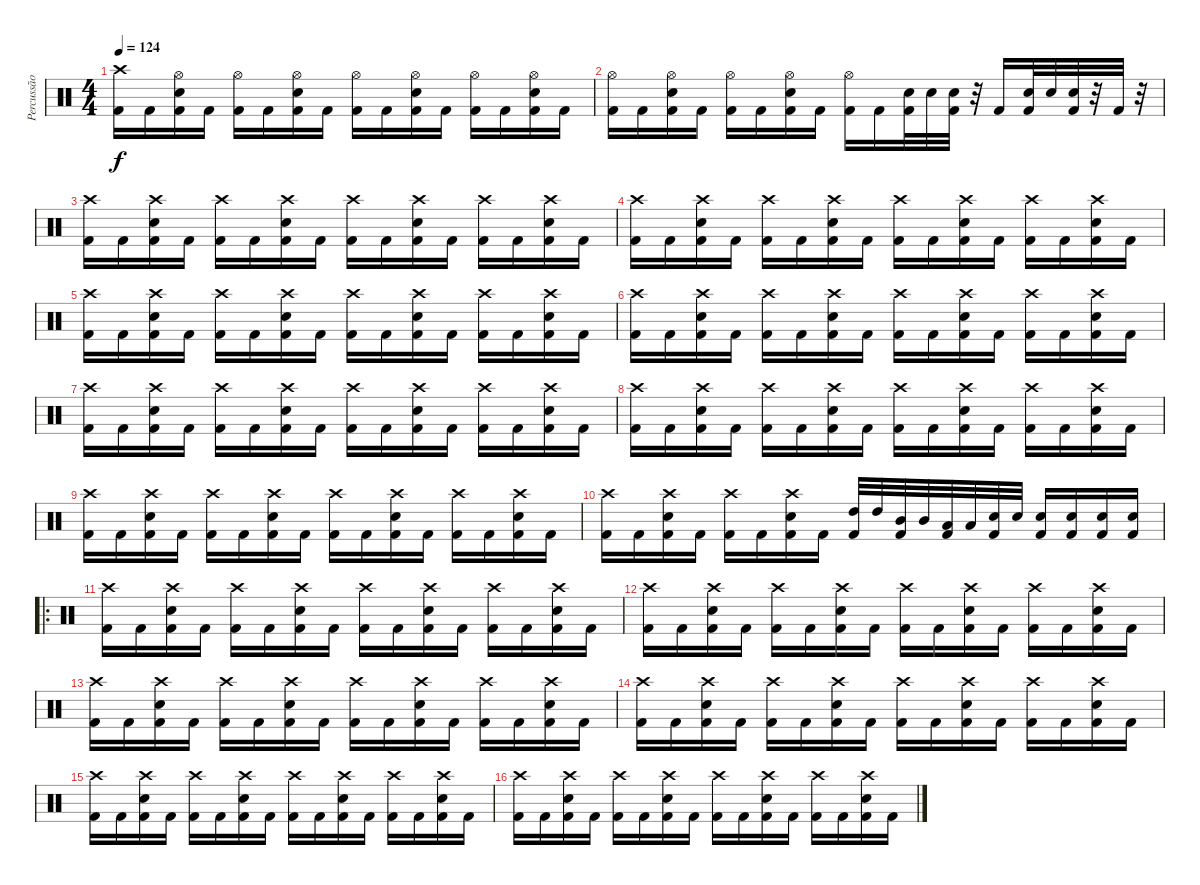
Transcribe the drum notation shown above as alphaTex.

\track ("Percussão" "Percussão") {instrument percussion}
\staff {score}
\articulation defaults
\ts (4 4)
\tempo 124
\clef neutral
\ks c
("Kick (hit) 2" "Crash high (hit)").16{dy f} "Kick (hit) 2".16 ("Kick (hit) 2" "Electric Snare (hit)" "Hi-Hat (open)").16 "Kick (hit) 2".16 ("Kick (hit) 2" "Hi-Hat (open)").16 "Kick (hit) 2".16 ("Kick (hit) 2" "Electric Snare (hit)" "Hi-Hat (open)").16 "Kick (hit) 2".16 ("Kick (hit) 2" "Hi-Hat (open)").16 "Kick (hit) 2".16 ("Kick (hit) 2" "Electric Snare (hit)" "Hi-Hat (open)").16 "Kick (hit) 2".16 ("Kick (hit) 2" "Hi-Hat (open)").16 "Kick (hit) 2".16 ("Kick (hit) 2" "Electric Snare (hit)" "Hi-Hat (open)").16 "Kick (hit) 2".16 |
("Kick (hit) 2" "Hi-Hat (open)").16 "Kick (hit) 2".16 ("Kick (hit) 2" "Electric Snare (hit)" "Hi-Hat (open)").16 "Kick (hit) 2".16 ("Kick (hit) 2" "Hi-Hat (open)").16 "Kick (hit) 2".16 ("Kick (hit) 2" "Electric Snare (hit)" "Hi-Hat (open)").16 "Kick (hit) 2".16 ("Kick (hit) 2" "Hi-Hat (open)").16 "Kick (hit) 2".16 ("Kick (hit) 2" "Electric Snare (hit)").32 "Electric Snare (hit)".32 ("Kick (hit) 2" "Electric Snare (hit)").32 r.32 "Kick (hit) 2".16 ("Kick (hit) 2" "Electric Snare (hit)").32 "Electric Snare (hit)".32 ("Kick (hit) 2" "Electric Snare (hit)").32 r.32 "Kick (hit) 2".32 r.32 |
("Kick (hit) 2" "Crash high (hit)").16 "Kick (hit) 2".16 ("Kick (hit) 2" "Electric Snare (hit)" "Crash high (hit)").16 "Kick (hit) 2".16 ("Kick (hit) 2" "Crash high (hit)").16 "Kick (hit) 2".16 ("Kick (hit) 2" "Electric Snare (hit)" "Crash high (hit)").16 "Kick (hit) 2".16 ("Kick (hit) 2" "Crash high (hit)").16 "Kick (hit) 2".16 ("Kick (hit) 2" "Electric Snare (hit)" "Crash high (hit)").16 "Kick (hit) 2".16 ("Kick (hit) 2" "Crash high (hit)").16 "Kick (hit) 2".16 ("Kick (hit) 2" "Electric Snare (hit)" "Crash high (hit)").16 "Kick (hit) 2".16 |
("Kick (hit) 2" "Crash high (hit)").16 "Kick (hit) 2".16 ("Kick (hit) 2" "Electric Snare (hit)" "Crash high (hit)").16 "Kick (hit) 2".16 ("Kick (hit) 2" "Crash high (hit)").16 "Kick (hit) 2".16 ("Kick (hit) 2" "Electric Snare (hit)" "Crash high (hit)").16 "Kick (hit) 2".16 ("Kick (hit) 2" "Crash high (hit)").16 "Kick (hit) 2".16 ("Kick (hit) 2" "Electric Snare (hit)" "Crash high (hit)").16 "Kick (hit) 2".16 ("Kick (hit) 2" "Crash high (hit)").16 "Kick (hit) 2".16 ("Kick (hit) 2" "Electric Snare (hit)" "Crash high (hit)").16 "Kick (hit) 2".16 |
("Kick (hit) 2" "Crash high (hit)").16 "Kick (hit) 2".16 ("Kick (hit) 2" "Electric Snare (hit)" "Crash high (hit)").16 "Kick (hit) 2".16 ("Kick (hit) 2" "Crash high (hit)").16 "Kick (hit) 2".16 ("Kick (hit) 2" "Electric Snare (hit)" "Crash high (hit)").16 "Kick (hit) 2".16 ("Kick (hit) 2" "Crash high (hit)").16 "Kick (hit) 2".16 ("Kick (hit) 2" "Electric Snare (hit)" "Crash high (hit)").16 "Kick (hit) 2".16 ("Kick (hit) 2" "Crash high (hit)").16 "Kick (hit) 2".16 ("Kick (hit) 2" "Electric Snare (hit)" "Crash high (hit)").16 "Kick (hit) 2".16 |
("Kick (hit) 2" "Crash high (hit)").16 "Kick (hit) 2".16 ("Kick (hit) 2" "Electric Snare (hit)" "Crash high (hit)").16 "Kick (hit) 2".16 ("Kick (hit) 2" "Crash high (hit)").16 "Kick (hit) 2".16 ("Kick (hit) 2" "Electric Snare (hit)" "Crash high (hit)").16 "Kick (hit) 2".16 ("Kick (hit) 2" "Crash high (hit)").16 "Kick (hit) 2".16 ("Kick (hit) 2" "Electric Snare (hit)" "Crash high (hit)").16 "Kick (hit) 2".16 ("Kick (hit) 2" "Crash high (hit)").16 "Kick (hit) 2".16 ("Kick (hit) 2" "Electric Snare (hit)" "Crash high (hit)").16 "Kick (hit) 2".16 |
("Kick (hit) 2" "Crash high (hit)").16 "Kick (hit) 2".16 ("Kick (hit) 2" "Electric Snare (hit)" "Crash high (hit)").16 "Kick (hit) 2".16 ("Kick (hit) 2" "Crash high (hit)").16 "Kick (hit) 2".16 ("Kick (hit) 2" "Electric Snare (hit)" "Crash high (hit)").16 "Kick (hit) 2".16 ("Kick (hit) 2" "Crash high (hit)").16 "Kick (hit) 2".16 ("Kick (hit) 2" "Electric Snare (hit)" "Crash high (hit)").16 "Kick (hit) 2".16 ("Kick (hit) 2" "Crash high (hit)").16 "Kick (hit) 2".16 ("Kick (hit) 2" "Electric Snare (hit)" "Crash high (hit)").16 "Kick (hit) 2".16 |
("Kick (hit) 2" "Crash high (hit)").16 "Kick (hit) 2".16 ("Kick (hit) 2" "Electric Snare (hit)" "Crash high (hit)").16 "Kick (hit) 2".16 ("Kick (hit) 2" "Crash high (hit)").16 "Kick (hit) 2".16 ("Kick (hit) 2" "Electric Snare (hit)" "Crash high (hit)").16 "Kick (hit) 2".16 ("Kick (hit) 2" "Crash high (hit)").16 "Kick (hit) 2".16 ("Kick (hit) 2" "Electric Snare (hit)" "Crash high (hit)").16 "Kick (hit) 2".16 ("Kick (hit) 2" "Crash high (hit)").16 "Kick (hit) 2".16 ("Kick (hit) 2" "Electric Snare (hit)" "Crash high (hit)").16 "Kick (hit) 2".16 |
("Kick (hit) 2" "Crash high (hit)").16 "Kick (hit) 2".16 ("Kick (hit) 2" "Electric Snare (hit)" "Crash high (hit)").16 "Kick (hit) 2".16 ("Kick (hit) 2" "Crash high (hit)").16 "Kick (hit) 2".16 ("Kick (hit) 2" "Electric Snare (hit)" "Crash high (hit)").16 "Kick (hit) 2".16 ("Kick (hit) 2" "Crash high (hit)").16 "Kick (hit) 2".16 ("Kick (hit) 2" "Electric Snare (hit)" "Crash high (hit)").16 "Kick (hit) 2".16 ("Kick (hit) 2" "Crash high (hit)").16 "Kick (hit) 2".16 ("Kick (hit) 2" "Electric Snare (hit)" "Crash high (hit)").16 "Kick (hit) 2".16 |
("Kick (hit) 2" "Crash high (hit)").16 "Kick (hit) 2".16 ("Kick (hit) 2" "Electric Snare (hit)" "Crash high (hit)").16 "Kick (hit) 2".16 ("Kick (hit) 2" "Crash high (hit)").16 "Kick (hit) 2".16 ("Kick (hit) 2" "Electric Snare (hit)" "Crash high (hit)").16 "Kick (hit) 2".16 ("Kick (hit) 2" "High Tom (hit)").32 "High Tom (hit)".32 ("Kick (hit) 2" "Mid Tom (hit)").32 "Mid Tom (hit)".32 ("Kick (hit) 2" "Low Tom (hit)").32 "Low Tom (hit)".32 ("Kick (hit) 2" "Electric Snare (hit)").32 "Electric Snare (hit)".32 ("Kick (hit) 2" "Electric Snare (hit)").16 ("Kick (hit) 2" "Electric Snare (hit)").16 ("Kick (hit) 2" "Electric Snare (hit)").16 ("Kick (hit) 2" "Electric Snare (hit)").16 |
\ro
("Kick (hit) 2" "Crash high (hit)").16 "Kick (hit) 2".16 ("Kick (hit) 2" "Electric Snare (hit)" "Crash high (hit)").16 "Kick (hit) 2".16 ("Kick (hit) 2" "Crash high (hit)").16 "Kick (hit) 2".16 ("Kick (hit) 2" "Electric Snare (hit)" "Crash high (hit)").16 "Kick (hit) 2".16 ("Kick (hit) 2" "Crash high (hit)").16 "Kick (hit) 2".16 ("Kick (hit) 2" "Electric Snare (hit)" "Crash high (hit)").16 "Kick (hit) 2".16 ("Kick (hit) 2" "Crash high (hit)").16 "Kick (hit) 2".16 ("Kick (hit) 2" "Electric Snare (hit)" "Crash high (hit)").16 "Kick (hit) 2".16 |
("Kick (hit) 2" "Crash high (hit)").16 "Kick (hit) 2".16 ("Kick (hit) 2" "Electric Snare (hit)" "Crash high (hit)").16 "Kick (hit) 2".16 ("Kick (hit) 2" "Crash high (hit)").16 "Kick (hit) 2".16 ("Kick (hit) 2" "Electric Snare (hit)" "Crash high (hit)").16 "Kick (hit) 2".16 ("Kick (hit) 2" "Crash high (hit)").16 "Kick (hit) 2".16 ("Kick (hit) 2" "Electric Snare (hit)" "Crash high (hit)").16 "Kick (hit) 2".16 ("Kick (hit) 2" "Crash high (hit)").16 "Kick (hit) 2".16 ("Kick (hit) 2" "Electric Snare (hit)" "Crash high (hit)").16 "Kick (hit) 2".16 |
("Kick (hit) 2" "Crash high (hit)").16 "Kick (hit) 2".16 ("Kick (hit) 2" "Electric Snare (hit)" "Crash high (hit)").16 "Kick (hit) 2".16 ("Kick (hit) 2" "Crash high (hit)").16 "Kick (hit) 2".16 ("Kick (hit) 2" "Electric Snare (hit)" "Crash high (hit)").16 "Kick (hit) 2".16 ("Kick (hit) 2" "Crash high (hit)").16 "Kick (hit) 2".16 ("Kick (hit) 2" "Electric Snare (hit)" "Crash high (hit)").16 "Kick (hit) 2".16 ("Kick (hit) 2" "Crash high (hit)").16 "Kick (hit) 2".16 ("Kick (hit) 2" "Electric Snare (hit)" "Crash high (hit)").16 "Kick (hit) 2".16 |
("Kick (hit) 2" "Crash high (hit)").16 "Kick (hit) 2".16 ("Kick (hit) 2" "Electric Snare (hit)" "Crash high (hit)").16 "Kick (hit) 2".16 ("Kick (hit) 2" "Crash high (hit)").16 "Kick (hit) 2".16 ("Kick (hit) 2" "Electric Snare (hit)" "Crash high (hit)").16 "Kick (hit) 2".16 ("Kick (hit) 2" "Crash high (hit)").16 "Kick (hit) 2".16 ("Kick (hit) 2" "Electric Snare (hit)" "Crash high (hit)").16 "Kick (hit) 2".16 ("Kick (hit) 2" "Crash high (hit)").16 "Kick (hit) 2".16 ("Kick (hit) 2" "Electric Snare (hit)" "Crash high (hit)").16 "Kick (hit) 2".16 |
("Kick (hit) 2" "Crash high (hit)").16 "Kick (hit) 2".16 ("Kick (hit) 2" "Electric Snare (hit)" "Crash high (hit)").16 "Kick (hit) 2".16 ("Kick (hit) 2" "Crash high (hit)").16 "Kick (hit) 2".16 ("Kick (hit) 2" "Electric Snare (hit)" "Crash high (hit)").16 "Kick (hit) 2".16 ("Kick (hit) 2" "Crash high (hit)").16 "Kick (hit) 2".16 ("Kick (hit) 2" "Electric Snare (hit)" "Crash high (hit)").16 "Kick (hit) 2".16 ("Kick (hit) 2" "Crash high (hit)").16 "Kick (hit) 2".16 ("Kick (hit) 2" "Electric Snare (hit)" "Crash high (hit)").16 "Kick (hit) 2".16 |
("Kick (hit) 2" "Crash high (hit)").16 "Kick (hit) 2".16 ("Kick (hit) 2" "Electric Snare (hit)" "Crash high (hit)").16 "Kick (hit) 2".16 ("Kick (hit) 2" "Crash high (hit)").16 "Kick (hit) 2".16 ("Kick (hit) 2" "Electric Snare (hit)" "Crash high (hit)").16 "Kick (hit) 2".16 ("Kick (hit) 2" "Crash high (hit)").16 "Kick (hit) 2".16 ("Kick (hit) 2" "Electric Snare (hit)" "Crash high (hit)").16 "Kick (hit) 2".16 ("Kick (hit) 2" "Crash high (hit)").16 "Kick (hit) 2".16 ("Kick (hit) 2" "Electric Snare (hit)" "Crash high (hit)").16 "Kick (hit) 2".16
